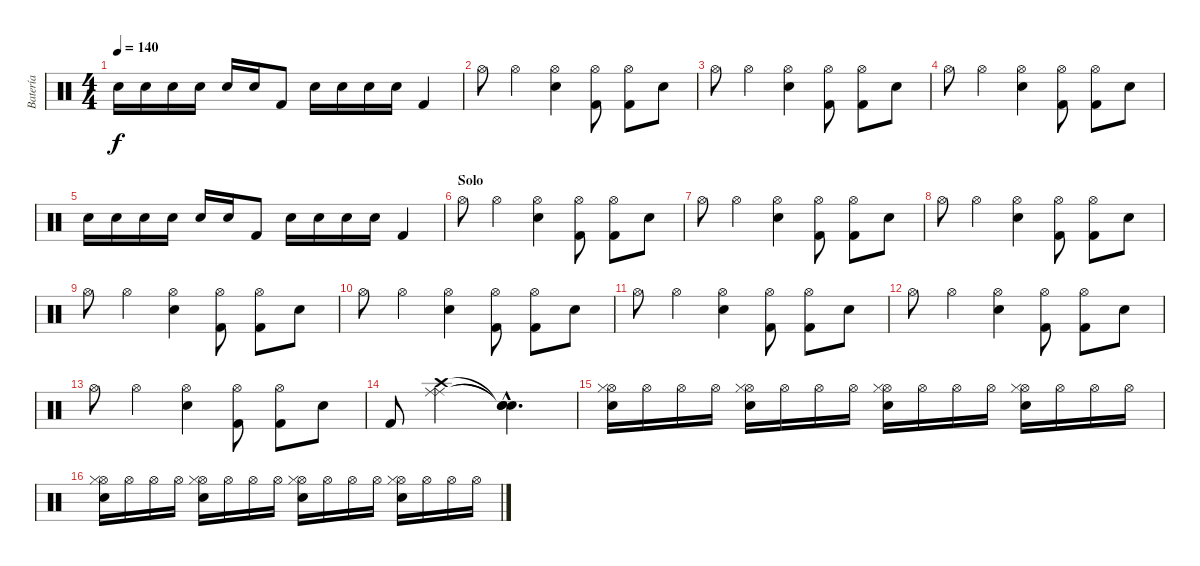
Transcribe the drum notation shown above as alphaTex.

\track ("Batería" "Batería") {instrument percussion}
\staff {score}
\articulation defaults
\ts (4 4)
\tempo 140
\clef neutral
\ks c "Snare (hit) 2".16{dy f} "Snare (hit) 2".16 "Snare (hit) 2".16 "Snare (hit) 2".16 "Snare (hit) 2".16 "Snare (hit) 2".16 "Kick (hit) 2".8 "Snare (hit) 2".16 "Snare (hit) 2".16 "Snare (hit) 2".16 "Snare (hit) 2".16 "Kick (hit) 2".4
|
"Hi-Hat (open)".8 "Hi-Hat (open)".4 ("Hi-Hat (open)" "Snare (hit) 2").4 ("Hi-Hat (open)" "Kick (hit) 2").8 ("Hi-Hat (open)" "Kick (hit) 2").8 "Snare (hit) 2".8 |
"Hi-Hat (open)".8 "Hi-Hat (open)".4 ("Hi-Hat (open)" "Snare (hit) 2").4 ("Hi-Hat (open)" "Kick (hit) 2").8 ("Hi-Hat (open)" "Kick (hit) 2").8 "Snare (hit) 2".8 |
"Hi-Hat (open)".8 "Hi-Hat (open)".4 ("Hi-Hat (open)" "Snare (hit) 2").4 ("Hi-Hat (open)" "Kick (hit) 2").8 ("Hi-Hat (open)" "Kick (hit) 2").8 "Snare (hit) 2".8 |
"Snare (hit) 2".16 "Snare (hit) 2".16 "Snare (hit) 2".16 "Snare (hit) 2".16 "Snare (hit) 2".16 "Snare (hit) 2".16 "Kick (hit) 2".8 "Snare (hit) 2".16 "Snare (hit) 2".16 "Snare (hit) 2".16 "Snare (hit) 2".16 "Kick (hit) 2".4 |
\section ("" "Solo")
"Hi-Hat (open)".8 "Hi-Hat (open)".4 ("Hi-Hat (open)" "Snare (hit) 2").4 ("Hi-Hat (open)" "Kick (hit) 2").8 ("Hi-Hat (open)" "Kick (hit) 2").8 "Snare (hit) 2".8 |
"Hi-Hat (open)".8 "Hi-Hat (open)".4 ("Hi-Hat (open)" "Snare (hit) 2").4 ("Hi-Hat (open)" "Kick (hit) 2").8 ("Hi-Hat (open)" "Kick (hit) 2").8 "Snare (hit) 2".8 |
"Hi-Hat (open)".8 "Hi-Hat (open)".4 ("Hi-Hat (open)" "Snare (hit) 2").4 ("Hi-Hat (open)" "Kick (hit) 2").8 ("Hi-Hat (open)" "Kick (hit) 2").8 "Snare (hit) 2".8 |
"Hi-Hat (open)".8 "Hi-Hat (open)".4 ("Hi-Hat (open)" "Snare (hit) 2").4 ("Hi-Hat (open)" "Kick (hit) 2").8 ("Hi-Hat (open)" "Kick (hit) 2").8 "Snare (hit) 2".8 |
"Hi-Hat (open)".8 "Hi-Hat (open)".4 ("Hi-Hat (open)" "Snare (hit) 2").4 ("Hi-Hat (open)" "Kick (hit) 2").8 ("Hi-Hat (open)" "Kick (hit) 2").8 "Snare (hit) 2".8 |
"Hi-Hat (open)".8 "Hi-Hat (open)".4 ("Hi-Hat (open)" "Snare (hit) 2").4 ("Hi-Hat (open)" "Kick (hit) 2").8 ("Hi-Hat (open)" "Kick (hit) 2").8 "Snare (hit) 2".8 |
"Hi-Hat (open)".8 "Hi-Hat (open)".4 ("Hi-Hat (open)" "Snare (hit) 2").4 ("Hi-Hat (open)" "Kick (hit) 2").8 ("Hi-Hat (open)" "Kick (hit) 2").8 "Snare (hit) 2".8 |
"Hi-Hat (open)".8 "Hi-Hat (open)".4 ("Hi-Hat (open)" "Snare (hit) 2").4 ("Hi-Hat (open)" "Kick (hit) 2").8 ("Hi-Hat (open)" "Kick (hit) 2").8 "Snare (hit) 2".8 |
"Kick (hit) 2".8 ("Ride (middle)" "Ride (middle)" "Crash high (hit)").2 ("Snare (hit)"{hac t} "Snare (hit)"{hac t} "Snare (hit)"{hac t}).4{d} |
("Hi-Hat (open)" "Hi-Hat (closed)" "Snare (hit) 2").16 "Hi-Hat (open)".16 "Hi-Hat (open)".16 "Hi-Hat (open)".16 ("Hi-Hat (open)" "Hi-Hat (closed)" "Snare (hit) 2").16 "Hi-Hat (open)".16 "Hi-Hat (open)".16 "Hi-Hat (open)".16 ("Hi-Hat (open)" "Hi-Hat (closed)" "Snare (hit) 2").16 "Hi-Hat (open)".16 "Hi-Hat (open)".16 "Hi-Hat (open)".16 ("Hi-Hat (open)" "Hi-Hat (closed)" "Snare (hit) 2").16 "Hi-Hat (open)".16 "Hi-Hat (open)".16 "Hi-Hat (open)".16 |
("Hi-Hat (open)" "Hi-Hat (closed)" "Snare (hit) 2").16 "Hi-Hat (open)".16 "Hi-Hat (open)".16 "Hi-Hat (open)".16 ("Hi-Hat (open)" "Hi-Hat (closed)" "Snare (hit) 2").16 "Hi-Hat (open)".16 "Hi-Hat (open)".16 "Hi-Hat (open)".16 ("Hi-Hat (open)" "Hi-Hat (closed)" "Snare (hit) 2").16 "Hi-Hat (open)".16 "Hi-Hat (open)".16 "Hi-Hat (open)".16 ("Hi-Hat (open)" "Hi-Hat (closed)" "Snare (hit) 2").16 "Hi-Hat (open)".16 "Hi-Hat (open)".16 "Hi-Hat (open)".16
